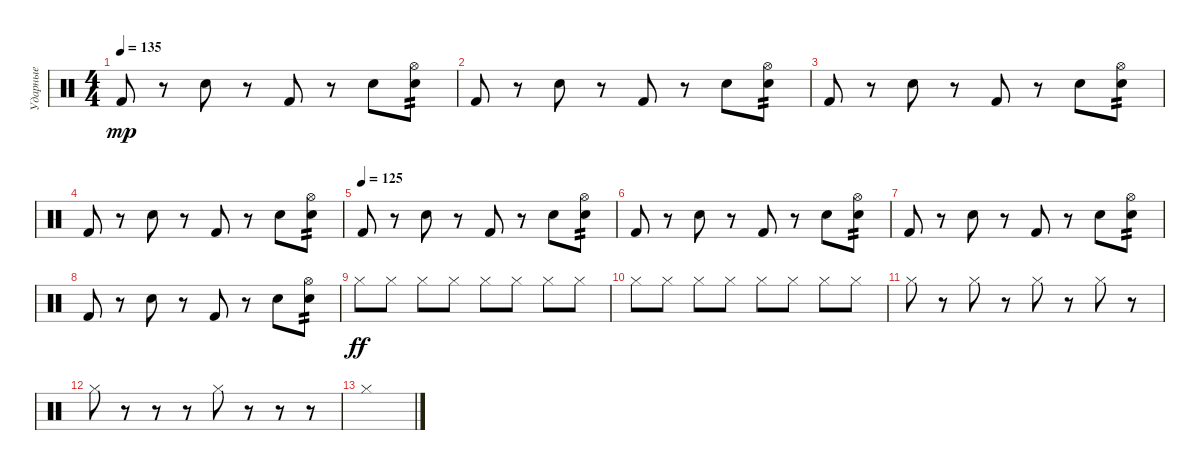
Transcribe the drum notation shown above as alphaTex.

\track ("Ударные" "Ударные") {instrument percussion}
\staff {score}
\articulation defaults
\ts (4 4)
\tempo 130
\tempo 135
\clef neutral
\ks c "Kick (hit) 2".8{dy mp}
r.8 "Snare (hit) 2".8 r.8 "Kick (hit) 2".8 r.8 "Snare (hit) 2".8 ("Snare (hit) 2" "Hi-Hat (open)").8{tp 2} |
"Kick (hit) 2".8 r.8 "Snare (hit) 2".8 r.8 "Kick (hit) 2".8 r.8 "Snare (hit) 2".8 ("Snare (hit) 2" "Hi-Hat (open)").8{tp 2} |
"Kick (hit) 2".8 r.8 "Snare (hit) 2".8 r.8 "Kick (hit) 2".8 r.8 "Snare (hit) 2".8 ("Snare (hit) 2" "Hi-Hat (open)").8{tp 2} |
"Kick (hit) 2".8 r.8 "Snare (hit) 2".8 r.8 "Kick (hit) 2".8 r.8 "Snare (hit) 2".8 ("Snare (hit) 2" "Hi-Hat (open)").8{tp 2} |
\tempo (125)
"Kick (hit) 2".8 r.8 "Snare (hit) 2".8 r.8 "Kick (hit) 2".8 r.8 "Snare (hit) 2".8 ("Snare (hit) 2" "Hi-Hat (open)").8{tp 2} |
"Kick (hit) 2".8 r.8 "Snare (hit) 2".8 r.8 "Kick (hit) 2".8 r.8 "Snare (hit) 2".8 ("Snare (hit) 2" "Hi-Hat (open)").8{tp 2} |
"Kick (hit) 2".8 r.8 "Snare (hit) 2".8 r.8 "Kick (hit) 2".8 r.8 "Snare (hit) 2".8 ("Snare (hit) 2" "Hi-Hat (open)").8{tp 2} |
"Kick (hit) 2".8 r.8 "Snare (hit) 2".8 r.8 "Kick (hit) 2".8 r.8 "Snare (hit) 2".8 ("Snare (hit) 2" "Hi-Hat (open)").8{tp 2} |
"Hi-Hat (closed)".8{dy ff} "Hi-Hat (closed)".8 "Hi-Hat (closed)".8 "Hi-Hat (closed)".8 "Hi-Hat (closed)".8 "Hi-Hat (closed)".8 "Hi-Hat (closed)".8 "Hi-Hat (closed)".8 |
"Hi-Hat (closed)".8 "Hi-Hat (closed)".8 "Hi-Hat (closed)".8 "Hi-Hat (closed)".8 "Hi-Hat (closed)".8 "Hi-Hat (closed)".8 "Hi-Hat (closed)".8 "Hi-Hat (closed)".8 |
"Hi-Hat (closed)".8 r.8 "Hi-Hat (closed)".8 r.8 "Hi-Hat (closed)".8 r.8 "Hi-Hat (closed)".8 r.8 |
"Hi-Hat (closed)".8 r.8 r.8 r.8 "Hi-Hat (closed)".8 r.8 r.8 r.8 |
"Hi-Hat (closed)".1
